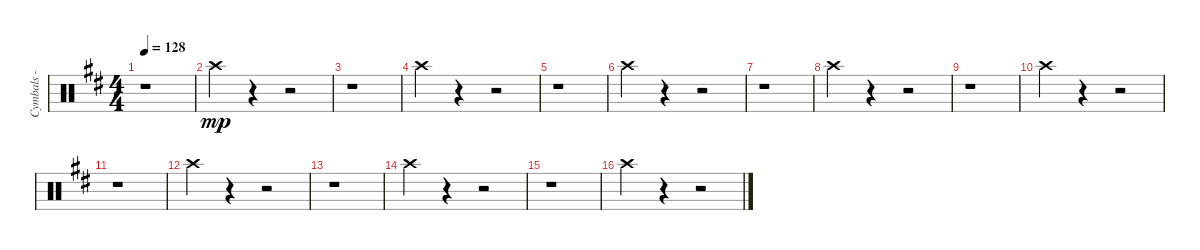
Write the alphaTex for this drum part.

\track ("Cymbals - crash" "Cymbals - ") {instrument percussion}
\staff {score}
\articulation defaults
\ts (4 4)
\tempo 128
\clef neutral
\ks bminor
r.1{dy mp} |
"Crash high (hit)".4 r.4 r.2 |
r.1 |
"Crash high (hit)".4 r.4 r.2 |
r.1 |
"Crash high (hit)".4 r.4 r.2 |
r.1 |
"Crash high (hit)".4 r.4 r.2 |
r.1 |
"Crash high (hit)".4 r.4 r.2 |
r.1 |
"Crash high (hit)".4 r.4 r.2 |
r.1 |
"Crash high (hit)".4 r.4 r.2 |
r.1 |
"Crash high (hit)".4 r.4 r.2
